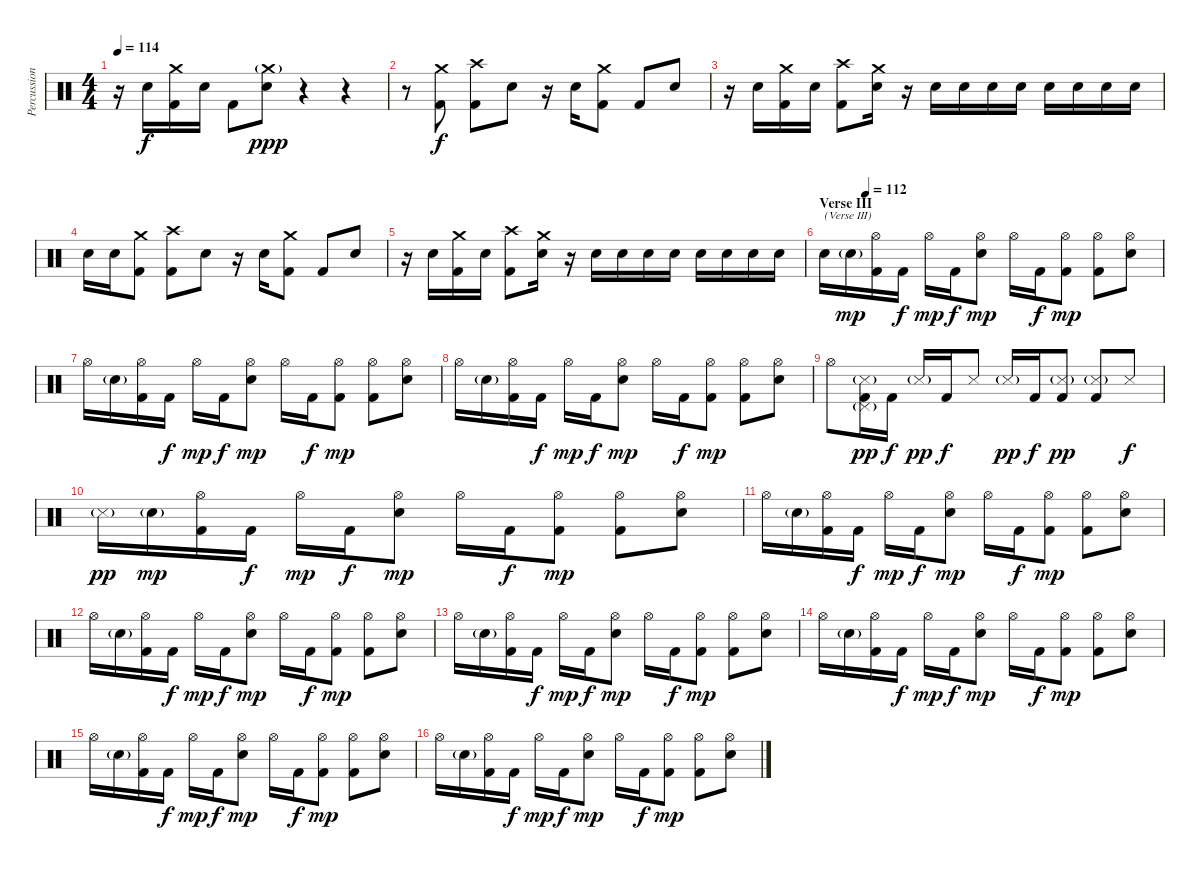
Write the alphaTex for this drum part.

\track ("Percussion" "Percussion") {instrument percussion}
\staff {score}
\articulation defaults
\ts (4 4)
\tempo 114
\clef neutral
\ks c
r.16{dy f} "Electric Snare (hit)".16 ("Crash medium (hit)" "Kick (hit) 2").16 "Electric Snare (hit)".16 "Kick (hit) 2".8 ("Crash medium (hit)"{g} "Electric Snare (hit)").8{dy ppp} r.4 r.4 |
r.8 ("Crash medium (hit)" "Kick (hit) 2").8{dy f} ("Crash high (hit)" "Kick (hit) 2").8 "Electric Snare (hit)".8 r.16 "Electric Snare (hit)".16 ("Crash medium (hit)" "Kick (hit) 2").8 "Kick (hit) 2".8 "Electric Snare (hit)".8 |
r.16 "Electric Snare (hit)".16 ("Crash medium (hit)" "Kick (hit) 2").16 "Electric Snare (hit)".16 ("Crash high (hit)" "Kick (hit) 2").8 ("Crash medium (hit)" "Electric Snare (hit)").16 r.16 "Electric Snare (hit)".16 "Electric Snare (hit)".16 "Electric Snare (hit)".16 "Electric Snare (hit)".16 "Electric Snare (hit)".16 "Electric Snare (hit)".16 "Electric Snare (hit)".16 "Electric Snare (hit)".16 |
"Electric Snare (hit)".16 "Electric Snare (hit)".16 ("Crash medium (hit)" "Kick (hit) 2").8 ("Crash high (hit)" "Kick (hit) 2").8 "Electric Snare (hit)".8 r.16 "Electric Snare (hit)".16 ("Crash medium (hit)" "Kick (hit) 2").8 "Kick (hit) 2".8 "Electric Snare (hit)".8 |
r.16 "Electric Snare (hit)".16 ("Crash medium (hit)" "Kick (hit) 2").16 "Electric Snare (hit)".16 ("Crash high (hit)" "Kick (hit) 2").8 ("Crash medium (hit)" "Electric Snare (hit)").16 r.16 "Electric Snare (hit)".16 "Electric Snare (hit)".16 "Electric Snare (hit)".16 "Electric Snare (hit)".16 "Electric Snare (hit)".16 "Electric Snare (hit)".16 "Electric Snare (hit)".16 "Electric Snare (hit)".16 |
\section ("" "Verse III")
\tempo (112 0.125)
"Electric Snare (hit)".16{txt "(Verse III)"} "Electric Snare (hit)"{g}.16{dy mp} ("Hi-Hat (open)" "Kick (hit) 2").16 "Kick (hit) 2".16{dy f} "Hi-Hat (open)".16{dy mp} "Kick (hit) 2".16{dy f} ("Hi-Hat (open)" "Electric Snare (hit)").8{dy mp} "Hi-Hat (open)".16 "Kick (hit) 2".16{dy f} ("Hi-Hat (open)" "Kick (hit) 2").8{dy mp} ("Hi-Hat (open)" "Kick (hit) 2").8 ("Hi-Hat (open)" "Electric Snare (hit)").8 |
"Hi-Hat (open)".16 "Electric Snare (hit)"{g}.16 ("Hi-Hat (open)" "Kick (hit) 2").16 "Kick (hit) 2".16{dy f} "Hi-Hat (open)".16{dy mp} "Kick (hit) 2".16{dy f} ("Hi-Hat (open)" "Electric Snare (hit)").8{dy mp} "Hi-Hat (open)".16 "Kick (hit) 2".16{dy f} ("Hi-Hat (open)" "Kick (hit) 2").8{dy mp} ("Hi-Hat (open)" "Kick (hit) 2").8 ("Hi-Hat (open)" "Electric Snare (hit)").8 |
"Hi-Hat (open)".16 "Electric Snare (hit)"{g}.16 ("Hi-Hat (open)" "Kick (hit) 2").16 "Kick (hit) 2".16{dy f} "Hi-Hat (open)".16{dy mp} "Kick (hit) 2".16{dy f} ("Hi-Hat (open)" "Electric Snare (hit)").8{dy mp} "Hi-Hat (open)".16 "Kick (hit) 2".16{dy f} ("Hi-Hat (open)" "Kick (hit) 2").8{dy mp} ("Hi-Hat (open)" "Kick (hit) 2").8 ("Hi-Hat (open)" "Electric Snare (hit)").8 |
"Hi-Hat (open)".8 ("Pedal Hi-Hat (hit)"{g} "Snare (side stick) 3"{g} "Kick (hit) 2").16{dy pp} "Kick (hit) 2".16{dy f} "Snare (side stick) 3"{g}.16{dy pp} "Kick (hit) 2".16{dy f} "Snare (side stick) 3".8 "Snare (side stick) 3"{g}.16{dy pp} "Kick (hit) 2".16{dy f} ("Snare (side stick) 3"{g} "Kick (hit) 2").8{dy pp} ("Snare (side stick) 3"{g} "Kick (hit) 2").8 "Snare (side stick) 3".8{dy f} |
"Snare (side stick) 3"{g}.16{dy pp} "Electric Snare (hit)"{g}.16{dy mp} ("Hi-Hat (open)" "Kick (hit) 2").16 "Kick (hit) 2".16{dy f} "Hi-Hat (open)".16{dy mp} "Kick (hit) 2".16{dy f} ("Hi-Hat (open)" "Electric Snare (hit)").8{dy mp} "Hi-Hat (open)".16 "Kick (hit) 2".16{dy f} ("Hi-Hat (open)" "Kick (hit) 2").8{dy mp} ("Hi-Hat (open)" "Kick (hit) 2").8 ("Hi-Hat (open)" "Electric Snare (hit)").8 |
"Hi-Hat (open)".16 "Electric Snare (hit)"{g}.16 ("Hi-Hat (open)" "Kick (hit) 2").16 "Kick (hit) 2".16{dy f} "Hi-Hat (open)".16{dy mp} "Kick (hit) 2".16{dy f} ("Hi-Hat (open)" "Electric Snare (hit)").8{dy mp} "Hi-Hat (open)".16 "Kick (hit) 2".16{dy f} ("Hi-Hat (open)" "Kick (hit) 2").8{dy mp} ("Hi-Hat (open)" "Kick (hit) 2").8 ("Hi-Hat (open)" "Electric Snare (hit)").8 |
"Hi-Hat (open)".16 "Electric Snare (hit)"{g}.16 ("Hi-Hat (open)" "Kick (hit) 2").16 "Kick (hit) 2".16{dy f} "Hi-Hat (open)".16{dy mp} "Kick (hit) 2".16{dy f} ("Hi-Hat (open)" "Electric Snare (hit)").8{dy mp} "Hi-Hat (open)".16 "Kick (hit) 2".16{dy f} ("Hi-Hat (open)" "Kick (hit) 2").8{dy mp} ("Hi-Hat (open)" "Kick (hit) 2").8 ("Hi-Hat (open)" "Electric Snare (hit)").8 |
"Hi-Hat (open)".16 "Electric Snare (hit)"{g}.16 ("Hi-Hat (open)" "Kick (hit) 2").16 "Kick (hit) 2".16{dy f} "Hi-Hat (open)".16{dy mp} "Kick (hit) 2".16{dy f} ("Hi-Hat (open)" "Electric Snare (hit)").8{dy mp} "Hi-Hat (open)".16 "Kick (hit) 2".16{dy f} ("Hi-Hat (open)" "Kick (hit) 2").8{dy mp} ("Hi-Hat (open)" "Kick (hit) 2").8 ("Hi-Hat (open)" "Electric Snare (hit)").8 |
"Hi-Hat (open)".16 "Electric Snare (hit)"{g}.16 ("Hi-Hat (open)" "Kick (hit) 2").16 "Kick (hit) 2".16{dy f} "Hi-Hat (open)".16{dy mp} "Kick (hit) 2".16{dy f} ("Hi-Hat (open)" "Electric Snare (hit)").8{dy mp} "Hi-Hat (open)".16 "Kick (hit) 2".16{dy f} ("Hi-Hat (open)" "Kick (hit) 2").8{dy mp} ("Hi-Hat (open)" "Kick (hit) 2").8 ("Hi-Hat (open)" "Electric Snare (hit)").8 |
"Hi-Hat (open)".16 "Electric Snare (hit)"{g}.16 ("Hi-Hat (open)" "Kick (hit) 2").16 "Kick (hit) 2".16{dy f} "Hi-Hat (open)".16{dy mp} "Kick (hit) 2".16{dy f} ("Hi-Hat (open)" "Electric Snare (hit)").8{dy mp} "Hi-Hat (open)".16 "Kick (hit) 2".16{dy f} ("Hi-Hat (open)" "Kick (hit) 2").8{dy mp} ("Hi-Hat (open)" "Kick (hit) 2").8 ("Hi-Hat (open)" "Electric Snare (hit)").8 |
"Hi-Hat (open)".16 "Electric Snare (hit)"{g}.16 ("Hi-Hat (open)" "Kick (hit) 2").16 "Kick (hit) 2".16{dy f} "Hi-Hat (open)".16{dy mp} "Kick (hit) 2".16{dy f} ("Hi-Hat (open)" "Electric Snare (hit)").8{dy mp} "Hi-Hat (open)".16 "Kick (hit) 2".16{dy f} ("Hi-Hat (open)" "Kick (hit) 2").8{dy mp} ("Hi-Hat (open)" "Kick (hit) 2").8 ("Hi-Hat (open)" "Electric Snare (hit)").8
